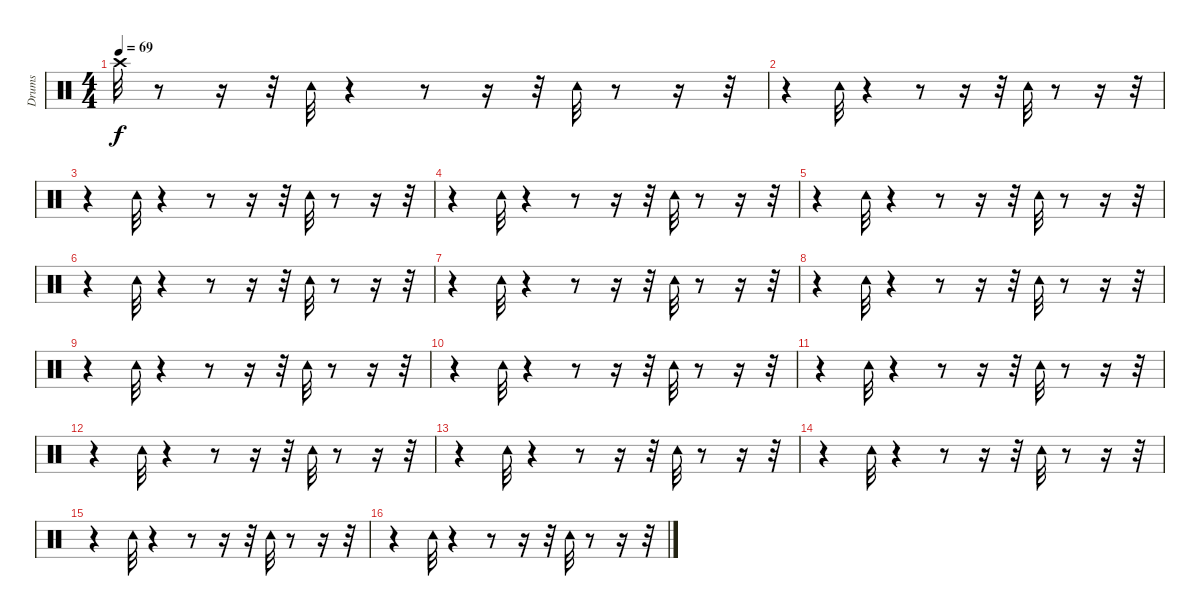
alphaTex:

\track ("Drums" "Drums") {instrument percussion}
\staff {score}
\articulation defaults
\ts (4 4)
\tempo 69
\clef neutral
\ks c "Crash high (hit)".32{dy f}
r.8 r.16 r.32 "Tambourine (hit)".32 r.4 r.8 r.16 r.32 "Tambourine (hit)".32 r.8 r.16 r.32 |
r.4 "Tambourine (hit)".32 r.4 r.8 r.16 r.32 "Tambourine (hit)".32 r.8 r.16 r.32 |
r.4 "Tambourine (hit)".32 r.4 r.8 r.16 r.32 "Tambourine (hit)".32 r.8 r.16 r.32 |
r.4 "Tambourine (hit)".32 r.4 r.8 r.16 r.32 "Tambourine (hit)".32 r.8 r.16 r.32 |
r.4 "Tambourine (hit)".32 r.4 r.8 r.16 r.32 "Tambourine (hit)".32 r.8 r.16 r.32 |
r.4 "Tambourine (hit)".32 r.4 r.8 r.16 r.32 "Tambourine (hit)".32 r.8 r.16 r.32 |
r.4 "Tambourine (hit)".32 r.4 r.8 r.16 r.32 "Tambourine (hit)".32 r.8 r.16 r.32 |
r.4 "Tambourine (hit)".32 r.4 r.8 r.16 r.32 "Tambourine (hit)".32 r.8 r.16 r.32 |
r.4 "Tambourine (hit)".32 r.4 r.8 r.16 r.32 "Tambourine (hit)".32 r.8 r.16 r.32 |
r.4 "Tambourine (hit)".32 r.4 r.8 r.16 r.32 "Tambourine (hit)".32 r.8 r.16 r.32 |
r.4 "Tambourine (hit)".32 r.4 r.8 r.16 r.32 "Tambourine (hit)".32 r.8 r.16 r.32 |
r.4 "Tambourine (hit)".32 r.4 r.8 r.16 r.32 "Tambourine (hit)".32 r.8 r.16 r.32 |
r.4 "Tambourine (hit)".32 r.4 r.8 r.16 r.32 "Tambourine (hit)".32 r.8 r.16 r.32 |
r.4 "Tambourine (hit)".32 r.4 r.8 r.16 r.32 "Tambourine (hit)".32 r.8 r.16 r.32 |
r.4 "Tambourine (hit)".32 r.4 r.8 r.16 r.32 "Tambourine (hit)".32 r.8 r.16 r.32 |
r.4 "Tambourine (hit)".32 r.4 r.8 r.16 r.32 "Tambourine (hit)".32 r.8 r.16 r.32
